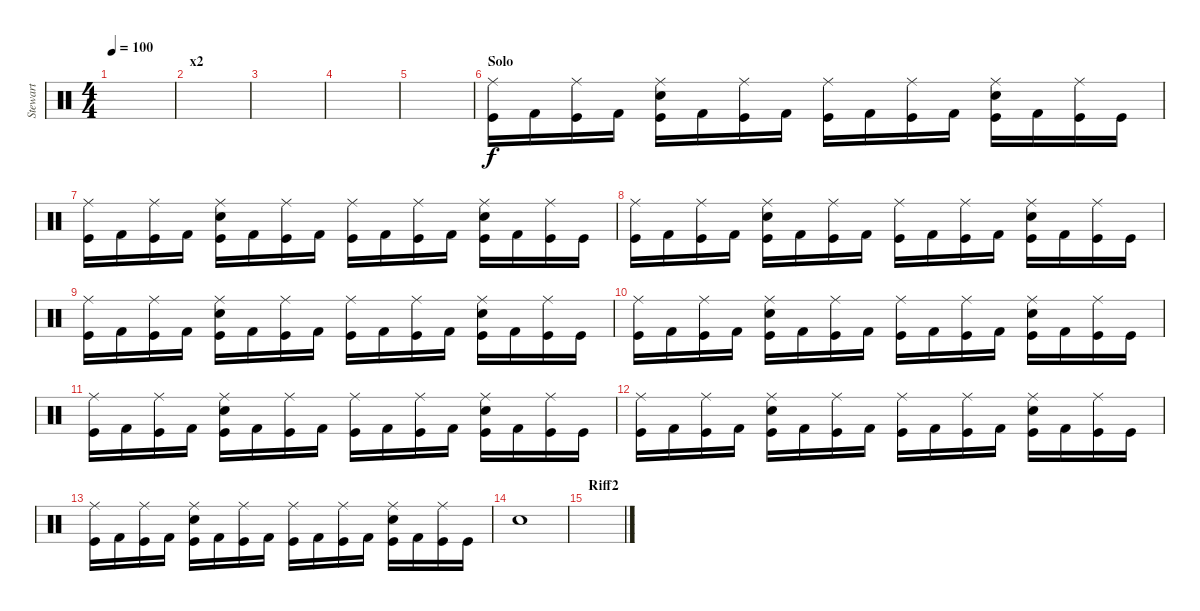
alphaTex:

\track ("Stewart" "Stewart") {instrument percussion}
\staff {score}
\articulation defaults
\ts (4 4)
\tempo 100
\clef neutral
\ks c
|
\section ("" "x2")
|
|
|
|
\section ("" "Solo")
("Kick (hit)" "Ride (middle)").16 "Kick (hit) 2".16 ("Kick (hit)" "Ride (middle)").16 "Kick (hit) 2".16 ("Kick (hit)" "Snare (hit) 2" "Ride (middle)").16 "Kick (hit) 2".16 ("Kick (hit)" "Ride (middle)").16 "Kick (hit) 2".16 ("Kick (hit)" "Ride (middle)").16 "Kick (hit) 2".16 ("Kick (hit)" "Ride (middle)").16 "Kick (hit) 2".16 ("Kick (hit)" "Snare (hit) 2" "Ride (middle)").16 "Kick (hit) 2".16 ("Kick (hit)" "Ride (middle)").16 "Kick (hit)".16 |
("Kick (hit)" "Ride (middle)").16 "Kick (hit) 2".16 ("Kick (hit)" "Ride (middle)").16 "Kick (hit) 2".16 ("Kick (hit)" "Snare (hit) 2" "Ride (middle)").16 "Kick (hit) 2".16 ("Kick (hit)" "Ride (middle)").16 "Kick (hit) 2".16 ("Kick (hit)" "Ride (middle)").16 "Kick (hit) 2".16 ("Kick (hit)" "Ride (middle)").16 "Kick (hit) 2".16 ("Kick (hit)" "Snare (hit) 2" "Ride (middle)").16 "Kick (hit) 2".16 ("Kick (hit)" "Ride (middle)").16 "Kick (hit)".16 |
("Kick (hit)" "Ride (middle)").16 "Kick (hit) 2".16 ("Kick (hit)" "Ride (middle)").16 "Kick (hit) 2".16 ("Kick (hit)" "Snare (hit) 2" "Ride (middle)").16 "Kick (hit) 2".16 ("Kick (hit)" "Ride (middle)").16 "Kick (hit) 2".16 ("Kick (hit)" "Ride (middle)").16 "Kick (hit) 2".16 ("Kick (hit)" "Ride (middle)").16 "Kick (hit) 2".16 ("Kick (hit)" "Snare (hit) 2" "Ride (middle)").16 "Kick (hit) 2".16 ("Kick (hit)" "Ride (middle)").16 "Kick (hit)".16 |
("Kick (hit)" "Ride (middle)").16 "Kick (hit) 2".16 ("Kick (hit)" "Ride (middle)").16 "Kick (hit) 2".16 ("Kick (hit)" "Snare (hit) 2" "Ride (middle)").16 "Kick (hit) 2".16 ("Kick (hit)" "Ride (middle)").16 "Kick (hit) 2".16 ("Kick (hit)" "Ride (middle)").16 "Kick (hit) 2".16 ("Kick (hit)" "Ride (middle)").16 "Kick (hit) 2".16 ("Kick (hit)" "Snare (hit) 2" "Ride (middle)").16 "Kick (hit) 2".16 ("Kick (hit)" "Ride (middle)").16 "Kick (hit)".16 |
("Kick (hit)" "Ride (middle)").16 "Kick (hit) 2".16 ("Kick (hit)" "Ride (middle)").16 "Kick (hit) 2".16 ("Kick (hit)" "Snare (hit) 2" "Ride (middle)").16 "Kick (hit) 2".16 ("Kick (hit)" "Ride (middle)").16 "Kick (hit) 2".16 ("Kick (hit)" "Ride (middle)").16 "Kick (hit) 2".16 ("Kick (hit)" "Ride (middle)").16 "Kick (hit) 2".16 ("Kick (hit)" "Snare (hit) 2" "Ride (middle)").16 "Kick (hit) 2".16 ("Kick (hit)" "Ride (middle)").16 "Kick (hit)".16 |
("Kick (hit)" "Ride (middle)").16 "Kick (hit) 2".16 ("Kick (hit)" "Ride (middle)").16 "Kick (hit) 2".16 ("Kick (hit)" "Snare (hit) 2" "Ride (middle)").16 "Kick (hit) 2".16 ("Kick (hit)" "Ride (middle)").16 "Kick (hit) 2".16 ("Kick (hit)" "Ride (middle)").16 "Kick (hit) 2".16 ("Kick (hit)" "Ride (middle)").16 "Kick (hit) 2".16 ("Kick (hit)" "Snare (hit) 2" "Ride (middle)").16 "Kick (hit) 2".16 ("Kick (hit)" "Ride (middle)").16 "Kick (hit)".16 |
("Kick (hit)" "Ride (middle)").16 "Kick (hit) 2".16 ("Kick (hit)" "Ride (middle)").16 "Kick (hit) 2".16 ("Kick (hit)" "Snare (hit) 2" "Ride (middle)").16 "Kick (hit) 2".16 ("Kick (hit)" "Ride (middle)").16 "Kick (hit) 2".16 ("Kick (hit)" "Ride (middle)").16 "Kick (hit) 2".16 ("Kick (hit)" "Ride (middle)").16 "Kick (hit) 2".16 ("Kick (hit)" "Snare (hit) 2" "Ride (middle)").16 "Kick (hit) 2".16 ("Kick (hit)" "Ride (middle)").16 "Kick (hit)".16 |
("Kick (hit)" "Ride (middle)").16 "Kick (hit) 2".16 ("Kick (hit)" "Ride (middle)").16 "Kick (hit) 2".16 ("Kick (hit)" "Snare (hit) 2" "Ride (middle)").16 "Kick (hit) 2".16 ("Kick (hit)" "Ride (middle)").16 "Kick (hit) 2".16 ("Kick (hit)" "Ride (middle)").16 "Kick (hit) 2".16 ("Kick (hit)" "Ride (middle)").16 "Kick (hit) 2".16 ("Kick (hit)" "Snare (hit) 2" "Ride (middle)").16 "Kick (hit) 2".16 ("Kick (hit)" "Ride (middle)").16 "Kick (hit)".16 |
"Snare (hit) 2".1 |
\section ("" "Riff2")
